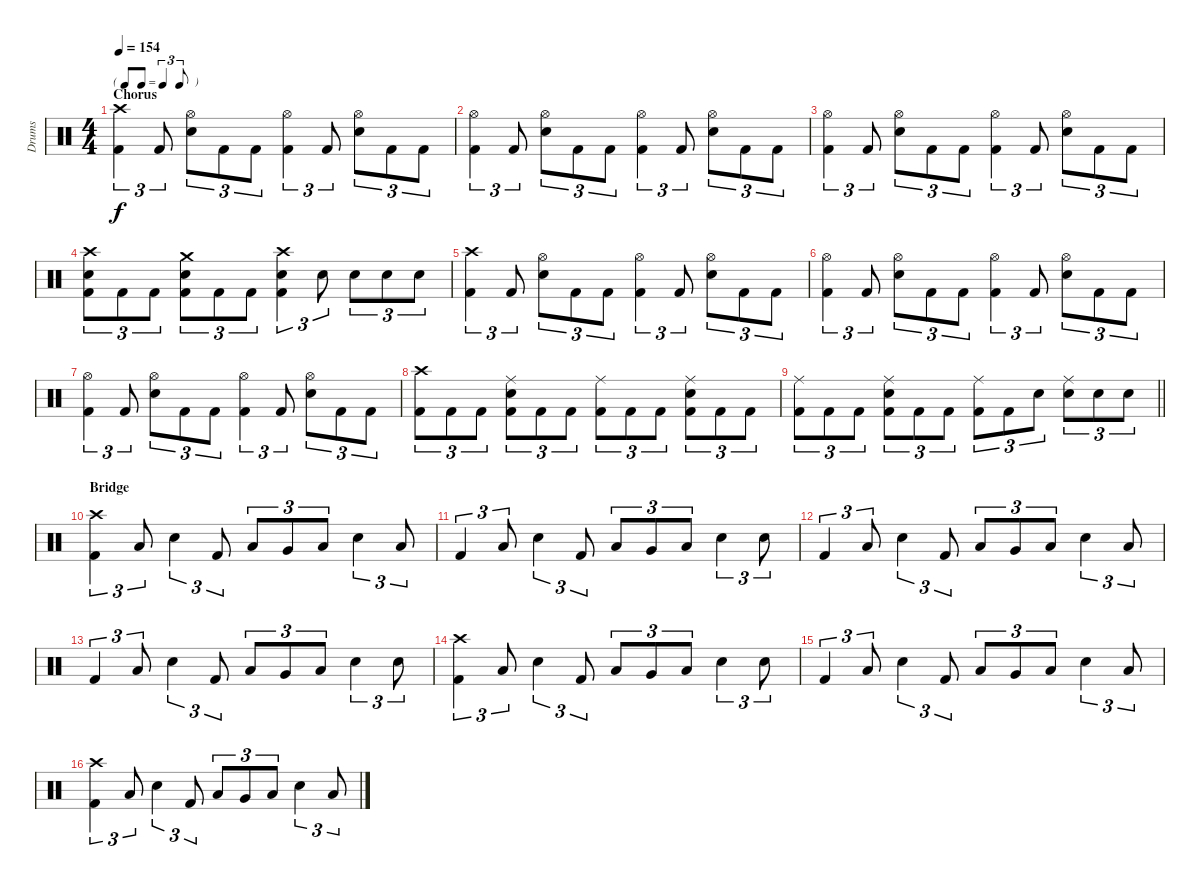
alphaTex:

\track ("Drums" "Drums") {instrument percussion}
\staff {score}
\articulation defaults
\ts (4 4)
\tf triplet8th
\section ("" "Chorus")
\tempo 154
\clef neutral
\ks c
("Crash high (hit)" "Kick (hit) 2").4{tu (3 2) dy f} "Kick (hit) 2".8{tu (3 2)} ("Hi-Hat (open)" "Snare (hit) 2").8{tu (3 2)} "Kick (hit) 2".8{tu (3 2)} "Kick (hit) 2".8{tu (3 2)} ("Hi-Hat (open)" "Kick (hit) 2").4{tu (3 2)} "Kick (hit) 2".8{tu (3 2)} ("Hi-Hat (open)" "Snare (hit) 2").8{tu (3 2)} "Kick (hit) 2".8{tu (3 2)} "Kick (hit) 2".8{tu (3 2)} |
("Hi-Hat (open)" "Kick (hit) 2").4{tu (3 2)} "Kick (hit) 2".8{tu (3 2)} ("Hi-Hat (open)" "Snare (hit) 2").8{tu (3 2)} "Kick (hit) 2".8{tu (3 2)} "Kick (hit) 2".8{tu (3 2)} ("Hi-Hat (open)" "Kick (hit) 2").4{tu (3 2)} "Kick (hit) 2".8{tu (3 2)} ("Hi-Hat (open)" "Snare (hit) 2").8{tu (3 2)} "Kick (hit) 2".8{tu (3 2)} "Kick (hit) 2".8{tu (3 2)} |
("Hi-Hat (open)" "Kick (hit) 2").4{tu (3 2)} "Kick (hit) 2".8{tu (3 2)} ("Hi-Hat (open)" "Snare (hit) 2").8{tu (3 2)} "Kick (hit) 2".8{tu (3 2)} "Kick (hit) 2".8{tu (3 2)} ("Hi-Hat (open)" "Kick (hit) 2").4{tu (3 2)} "Kick (hit) 2".8{tu (3 2)} ("Hi-Hat (open)" "Snare (hit) 2").8{tu (3 2)} "Kick (hit) 2".8{tu (3 2)} "Kick (hit) 2".8{tu (3 2)} |
("Crash high (hit)" "Snare (hit) 2" "Kick (hit) 2").8{tu (3 2)} "Kick (hit) 2".8{tu (3 2)} "Kick (hit) 2".8{tu (3 2)} ("Crash medium (hit)" "Snare (hit) 2" "Kick (hit) 2").8{tu (3 2)} "Kick (hit) 2".8{tu (3 2)} "Kick (hit) 2".8{tu (3 2)} ("Crash high (hit)" "Snare (hit) 2" "Kick (hit) 2").4{tu (3 2)} "Snare (hit) 2".8{tu (3 2)} "Snare (hit) 2".8{tu (3 2)} "Snare (hit) 2".8{tu (3 2)} "Snare (hit) 2".8{tu (3 2)} |
("Crash high (hit)" "Kick (hit) 2").4{tu (3 2)} "Kick (hit) 2".8{tu (3 2)} ("Hi-Hat (open)" "Snare (hit) 2").8{tu (3 2)} "Kick (hit) 2".8{tu (3 2)} "Kick (hit) 2".8{tu (3 2)} ("Hi-Hat (open)" "Kick (hit) 2").4{tu (3 2)} "Kick (hit) 2".8{tu (3 2)} ("Hi-Hat (open)" "Snare (hit) 2").8{tu (3 2)} "Kick (hit) 2".8{tu (3 2)} "Kick (hit) 2".8{tu (3 2)} |
("Hi-Hat (open)" "Kick (hit) 2").4{tu (3 2)} "Kick (hit) 2".8{tu (3 2)} ("Hi-Hat (open)" "Snare (hit) 2").8{tu (3 2)} "Kick (hit) 2".8{tu (3 2)} "Kick (hit) 2".8{tu (3 2)} ("Hi-Hat (open)" "Kick (hit) 2").4{tu (3 2)} "Kick (hit) 2".8{tu (3 2)} ("Hi-Hat (open)" "Snare (hit) 2").8{tu (3 2)} "Kick (hit) 2".8{tu (3 2)} "Kick (hit) 2".8{tu (3 2)} |
("Hi-Hat (open)" "Kick (hit) 2").4{tu (3 2)} "Kick (hit) 2".8{tu (3 2)} ("Hi-Hat (open)" "Snare (hit) 2").8{tu (3 2)} "Kick (hit) 2".8{tu (3 2)} "Kick (hit) 2".8{tu (3 2)} ("Hi-Hat (open)" "Kick (hit) 2").4{tu (3 2)} "Kick (hit) 2".8{tu (3 2)} ("Hi-Hat (open)" "Snare (hit) 2").8{tu (3 2)} "Kick (hit) 2".8{tu (3 2)} "Kick (hit) 2".8{tu (3 2)} |
("Crash high (hit)" "Kick (hit) 2").8{tu (3 2)} "Kick (hit) 2".8{tu (3 2)} "Kick (hit) 2".8{tu (3 2)} ("Ride (middle)" "Snare (hit) 2" "Kick (hit) 2").8{tu (3 2)} "Kick (hit) 2".8{tu (3 2)} "Kick (hit) 2".8{tu (3 2)} ("Ride (middle)" "Kick (hit) 2").8{tu (3 2)} "Kick (hit) 2".8{tu (3 2)} "Kick (hit) 2".8{tu (3 2)} ("Ride (middle)" "Snare (hit) 2" "Kick (hit) 2").8{tu (3 2)} "Kick (hit) 2".8{tu (3 2)} "Kick (hit) 2".8{tu (3 2)} |
\barLineRight lightlight
("Ride (middle)" "Kick (hit) 2").8{tu (3 2)} "Kick (hit) 2".8{tu (3 2)} "Kick (hit) 2".8{tu (3 2)} ("Ride (middle)" "Snare (hit) 2" "Kick (hit) 2").8{tu (3 2)} "Kick (hit) 2".8{tu (3 2)} "Kick (hit) 2".8{tu (3 2)} ("Ride (middle)" "Kick (hit) 2").8{tu (3 2)} "Kick (hit) 2".8{tu (3 2)} "Snare (hit) 2".8{tu (3 2)} ("Ride (middle)" "Snare (hit) 2").8{tu (3 2)} "Snare (hit) 2".8{tu (3 2)} "Snare (hit) 2".8{tu (3 2)} |
\section ("" "Bridge")
("Crash high (hit)" "Kick (hit) 2").4{tu (3 2)} "Low Floor Tom (hit)".8{tu (3 2)} "Snare (hit) 2".4{tu (3 2)} "Kick (hit) 2".8{tu (3 2)} "Low Tom (hit)".8{tu (3 2)} "Very Low Tom (hit)".8{tu (3 2)} "Low Floor Tom (hit)".8{tu (3 2)} "Snare (hit) 2".4{tu (3 2)} "Low Floor Tom (hit)".8{tu (3 2)} |
"Kick (hit) 2".4{tu (3 2)} "Low Floor Tom (hit)".8{tu (3 2)} "Snare (hit) 2".4{tu (3 2)} "Kick (hit) 2".8{tu (3 2)} "Low Tom (hit)".8{tu (3 2)} "Very Low Tom (hit)".8{tu (3 2)} "Low Floor Tom (hit)".8{tu (3 2)} "Snare (hit) 2".4{tu (3 2)} "Snare (hit) 2".8{tu (3 2)} |
"Kick (hit) 2".4{tu (3 2)} "Low Floor Tom (hit)".8{tu (3 2)} "Snare (hit) 2".4{tu (3 2)} "Kick (hit) 2".8{tu (3 2)} "Low Tom (hit)".8{tu (3 2)} "Very Low Tom (hit)".8{tu (3 2)} "Low Floor Tom (hit)".8{tu (3 2)} "Snare (hit) 2".4{tu (3 2)} "Low Floor Tom (hit)".8{tu (3 2)} |
"Kick (hit) 2".4{tu (3 2)} "Low Floor Tom (hit)".8{tu (3 2)} "Snare (hit) 2".4{tu (3 2)} "Kick (hit) 2".8{tu (3 2)} "Low Tom (hit)".8{tu (3 2)} "Very Low Tom (hit)".8{tu (3 2)} "Low Floor Tom (hit)".8{tu (3 2)} "Snare (hit) 2".4{tu (3 2)} "Snare (hit) 2".8{tu (3 2)} |
("Crash high (hit)" "Kick (hit) 2").4{tu (3 2)} "Low Floor Tom (hit)".8{tu (3 2)} "Snare (hit) 2".4{tu (3 2)} "Kick (hit) 2".8{tu (3 2)} "Low Tom (hit)".8{tu (3 2)} "Very Low Tom (hit)".8{tu (3 2)} "Low Floor Tom (hit)".8{tu (3 2)} "Snare (hit) 2".4{tu (3 2)} "Snare (hit) 2".8{tu (3 2)} |
"Kick (hit) 2".4{tu (3 2)} "Low Floor Tom (hit)".8{tu (3 2)} "Snare (hit) 2".4{tu (3 2)} "Kick (hit) 2".8{tu (3 2)} "Low Tom (hit)".8{tu (3 2)} "Very Low Tom (hit)".8{tu (3 2)} "Low Floor Tom (hit)".8{tu (3 2)} "Snare (hit) 2".4{tu (3 2)} "Low Floor Tom (hit)".8{tu (3 2)} |
("Crash high (hit)" "Kick (hit) 2").4{tu (3 2)} "Low Floor Tom (hit)".8{tu (3 2)} "Snare (hit) 2".4{tu (3 2)} "Kick (hit) 2".8{tu (3 2)} "Low Tom (hit)".8{tu (3 2)} "Very Low Tom (hit)".8{tu (3 2)} "Low Floor Tom (hit)".8{tu (3 2)} "Snare (hit) 2".4{tu (3 2)} "Low Floor Tom (hit)".8{tu (3 2)}
